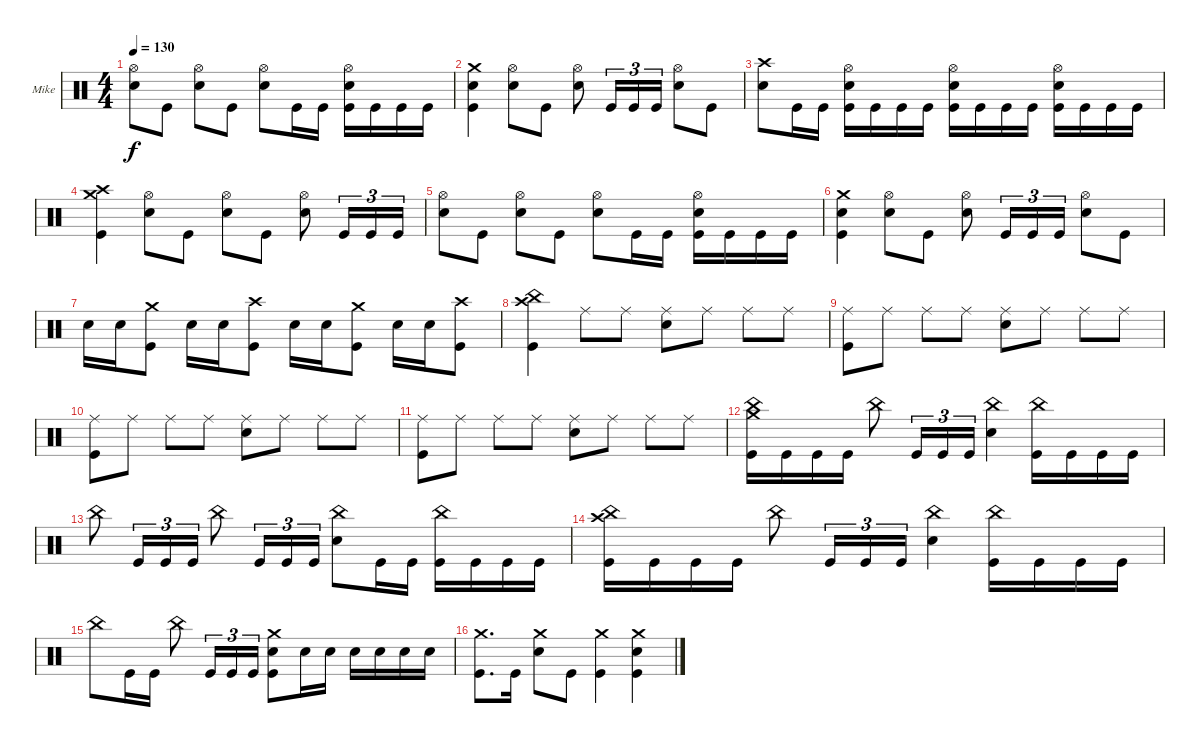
\defaultSystemsLayout 4
\bracketExtendMode groupsimilarinstruments
\firstSystemTrackNameOrientation horizontal
\otherSystemsTrackNameOrientation horizontal
\track ("Mike Portnoy" "Mike") {instrument percussion}
\staff {score}
\articulation defaults
\ts (4 4)
\tempo 130
\clef neutral
\ks c
("Hi-Hat (open)" "Snare (hit) 2").8{dy f} "Kick (hit)".8 ("Hi-Hat (open)" "Snare (hit) 2").8 "Kick (hit)".8 ("Hi-Hat (open)" "Snare (hit) 2").8 "Kick (hit)".16 "Kick (hit)".16 ("Hi-Hat (open)" "Snare (hit) 2" "Kick (hit)").16 "Kick (hit)".16 "Kick (hit)".16 "Kick (hit)".16 |
("Crash medium (hit)" "Snare (hit) 2" "Kick (hit)").4 ("Hi-Hat (open)" "Snare (hit) 2").8 "Kick (hit)".8 ("Hi-Hat (open)" "Snare (hit) 2").8 "Kick (hit)".16{tu (3 2)} "Kick (hit)".16{tu (3 2)} "Kick (hit)".16{tu (3 2)} ("Hi-Hat (open)" "Snare (hit) 2").8 "Kick (hit)".8 |
("Crash high (hit)" "Snare (hit) 2").8 "Kick (hit)".16 "Kick (hit)".16 ("Hi-Hat (open)" "Snare (hit) 2" "Kick (hit)").16 "Kick (hit)".16 "Kick (hit)".16 "Kick (hit)".16 ("Hi-Hat (open)" "Snare (hit) 2" "Kick (hit)").16 "Kick (hit)".16 "Kick (hit)".16 "Kick (hit)".16 ("Hi-Hat (open)" "Snare (hit) 2" "Kick (hit)").16 "Kick (hit)".16 "Kick (hit)".16 "Kick (hit)".16 |
("Crash medium (hit)" "Crash high (hit)" "Kick (hit)").4 ("Hi-Hat (open)" "Snare (hit) 2").8 "Kick (hit)".8 ("Hi-Hat (open)" "Snare (hit) 2").8 "Kick (hit)".8 ("Hi-Hat (open)" "Snare (hit) 2").8 "Kick (hit)".16{tu (3 2)} "Kick (hit)".16{tu (3 2)} "Kick (hit)".16{tu (3 2)} |
("Hi-Hat (open)" "Snare (hit) 2").8 "Kick (hit)".8 ("Hi-Hat (open)" "Snare (hit) 2").8 "Kick (hit)".8 ("Hi-Hat (open)" "Snare (hit) 2").8 "Kick (hit)".16 "Kick (hit)".16 ("Hi-Hat (open)" "Snare (hit) 2" "Kick (hit)").16 "Kick (hit)".16 "Kick (hit)".16 "Kick (hit)".16 |
("Crash medium (hit)" "Snare (hit) 2" "Kick (hit)").4 ("Hi-Hat (open)" "Snare (hit) 2").8 "Kick (hit)".8 ("Hi-Hat (open)" "Snare (hit) 2").8 "Kick (hit)".16{tu (3 2)} "Kick (hit)".16{tu (3 2)} "Kick (hit)".16{tu (3 2)} ("Hi-Hat (open)" "Snare (hit) 2").8 "Kick (hit)".8 |
"Snare (hit) 2".16 "Snare (hit) 2".16 ("Crash medium (hit)" "Kick (hit)").8 "Snare (hit) 2".16 "Snare (hit) 2".16 ("Crash high (hit)" "Kick (hit)").8 "Snare (hit) 2".16 "Snare (hit) 2".16 ("Crash medium (hit)" "Kick (hit)").8 "Snare (hit) 2".16 "Snare (hit) 2".16 ("Crash high (hit)" "Kick (hit)").8 |
("Crash high (hit)" "China (hit)" "Kick (hit)").4 "Ride (middle)".8 "Ride (middle)".8 ("Ride (middle)" "Snare (hit) 2").8 "Ride (middle)".8 "Ride (middle)".8 "Ride (middle)".8 |
("Ride (middle)" "Kick (hit)").8 "Ride (middle)".8 "Ride (middle)".8 "Ride (middle)".8 ("Ride (middle)" "Snare (hit) 2").8 "Ride (middle)".8 "Ride (middle)".8 "Ride (middle)".8 |
("Ride (middle)" "Kick (hit)").8 "Ride (middle)".8 "Ride (middle)".8 "Ride (middle)".8 ("Ride (middle)" "Snare (hit) 2").8 "Ride (middle)".8 "Ride (middle)".8 "Ride (middle)".8 |
("Ride (middle)" "Kick (hit)").8 "Ride (middle)".8 "Ride (middle)".8 "Ride (middle)".8 ("Ride (middle)" "Snare (hit) 2").8 "Ride (middle)".8 "Ride (middle)".8 "Ride (middle)".8 |
("Crash medium (hit)" "China (hit)" "Kick (hit)").16 "Kick (hit)".16 "Kick (hit)".16 "Kick (hit)".16 "China (hit)".8 "Kick (hit)".16{tu (3 2)} "Kick (hit)".16{tu (3 2)} "Kick (hit)".16{tu (3 2)} ("China (hit)" "Snare (hit) 2").4 ("China (hit)" "Kick (hit)").16 "Kick (hit)".16 "Kick (hit)".16 "Kick (hit)".16 |
"China (hit)".8 "Kick (hit)".16{tu (3 2)} "Kick (hit)".16{tu (3 2)} "Kick (hit)".16{tu (3 2)} "China (hit)".8 "Kick (hit)".16{tu (3 2)} "Kick (hit)".16{tu (3 2)} "Kick (hit)".16{tu (3 2)} ("China (hit)" "Snare (hit) 2").8 "Kick (hit)".16 "Kick (hit)".16 ("China (hit)" "Kick (hit)").16 "Kick (hit)".16 "Kick (hit)".16 "Kick (hit)".16 |
("Crash high (hit)" "China (hit)" "Kick (hit)").16 "Kick (hit)".16 "Kick (hit)".16 "Kick (hit)".16 "China (hit)".8 "Kick (hit)".16{tu (3 2)} "Kick (hit)".16{tu (3 2)} "Kick (hit)".16{tu (3 2)} ("China (hit)" "Snare (hit) 2").4 ("China (hit)" "Kick (hit)").16 "Kick (hit)".16 "Kick (hit)".16 "Kick (hit)".16 |
"China (hit)".8 "Kick (hit)".16 "Kick (hit)".16 "China (hit)".8 "Kick (hit)".16{tu (3 2)} "Kick (hit)".16{tu (3 2)} "Kick (hit)".16{tu (3 2)} ("Crash medium (hit)" "Snare (hit) 2" "Kick (hit)").8 "Snare (hit) 2".16 "Snare (hit) 2".16 "Snare (hit) 2".16 "Snare (hit) 2".16 "Snare (hit) 2".16 "Snare (hit) 2".16 |
("Crash medium (hit)" "Kick (hit)").8{d} "Kick (hit)".16 ("Crash medium (hit)" "Snare (hit) 2").8 "Kick (hit)".8 ("Crash medium (hit)" "Kick (hit)").4 ("Crash medium (hit)" "Snare (hit) 2" "Kick (hit)").4
